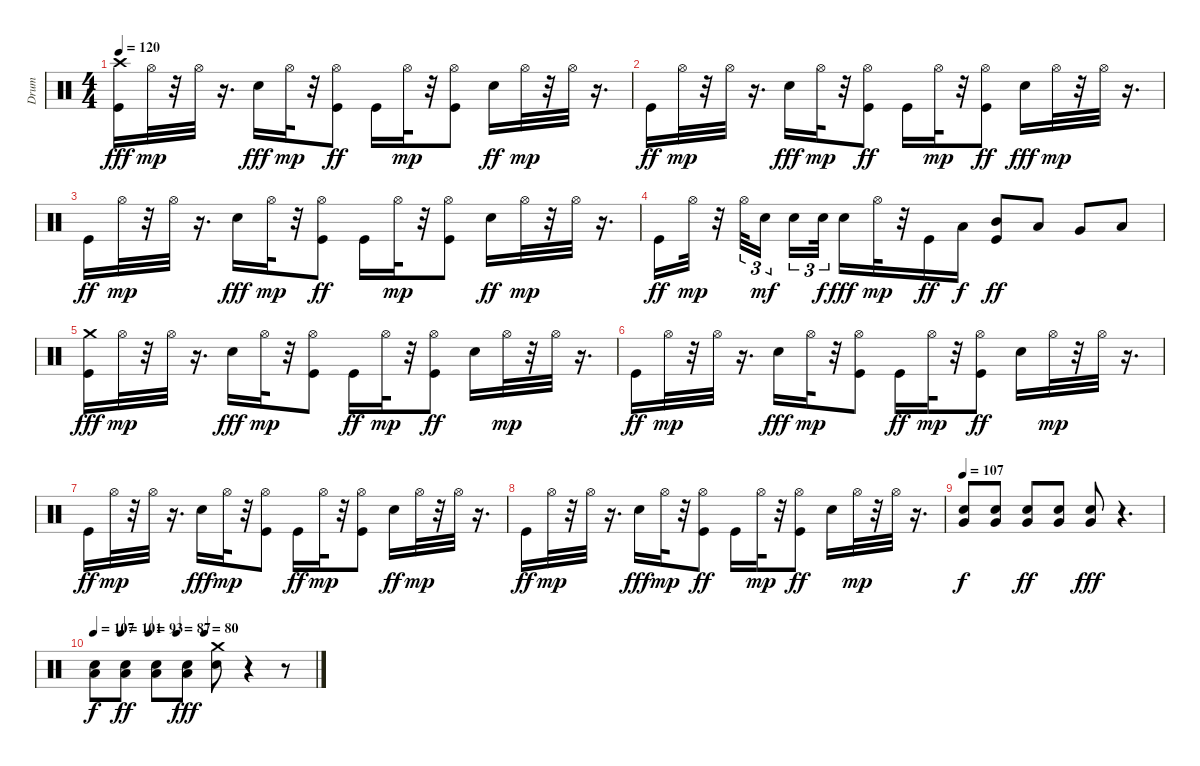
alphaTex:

\track ("Drum" "Drum") {instrument percussion}
\staff {score}
\articulation defaults
\ts (4 4)
\tempo 120
\clef neutral
\ks c
("Kick (hit)" "Crash high (hit)").16{dy fff} "Hi-Hat (open)".32{dy mp} r.32 "Hi-Hat (open)".32 r.16{d} "Snare (hit) 2".16{dy fff} "Hi-Hat (open)".32{dy mp} r.32 ("Hi-Hat (open)" "Kick (hit)").8{dy ff} "Kick (hit)".16 "Hi-Hat (open)".32{dy mp} r.32 ("Kick (hit)" "Hi-Hat (open)").8 "Snare (hit) 2".16{dy ff} "Hi-Hat (open)".32{dy mp} r.32 "Hi-Hat (open)".32 r.16{d} |
"Kick (hit)".16{dy ff} "Hi-Hat (open)".32{dy mp} r.32 "Hi-Hat (open)".32 r.16{d} "Snare (hit) 2".16{dy fff} "Hi-Hat (open)".32{dy mp} r.32 ("Hi-Hat (open)" "Kick (hit)").8{dy ff} "Kick (hit)".16 "Hi-Hat (open)".32{dy mp} r.32 ("Hi-Hat (open)" "Kick (hit)").8{dy ff} "Snare (hit) 2".16{dy fff} "Hi-Hat (open)".32{dy mp} r.32 "Hi-Hat (open)".32 r.16{d} |
"Kick (hit)".16{dy ff} "Hi-Hat (open)".32{dy mp} r.32 "Hi-Hat (open)".32 r.16{d} "Snare (hit) 2".16{dy fff} "Hi-Hat (open)".32{dy mp} r.32 ("Hi-Hat (open)" "Kick (hit)").8{dy ff} "Kick (hit)".16 "Hi-Hat (open)".32{dy mp} r.32 ("Kick (hit)" "Hi-Hat (open)").8 "Snare (hit) 2".16{dy ff} "Hi-Hat (open)".32{dy mp} r.32 "Hi-Hat (open)".32 r.16{d} |
"Kick (hit)".16{dy ff} "Hi-Hat (open)".32{dy mp} r.32 "Hi-Hat (open)".32{tu (3 2)} "Snare (hit) 2".16{tu (3 2) dy mf} "Snare (hit) 2".16{tu (3 2)} "Snare (hit) 2".32{tu (3 2) dy f} "Snare (hit) 2".16{dy fff} "Hi-Hat (open)".32{dy mp} r.32 "Kick (hit)".16{dy ff} "Low Tom (hit)".16{dy f} ("Mid Tom (hit)" "Kick (hit)").8{dy ff} "Low Tom (hit)".8 "Very Low Tom (hit)".8 "Low Floor Tom (hit)".8 |
("Kick (hit)" "Crash medium (hit)").16{dy fff} "Hi-Hat (open)".32{dy mp} r.32 "Hi-Hat (open)".32 r.16{d} "Snare (hit) 2".16{dy fff} "Hi-Hat (open)".32{dy mp} r.32 ("Kick (hit)" "Hi-Hat (open)").8 "Kick (hit)".16{dy ff} "Hi-Hat (open)".32{dy mp} r.32 ("Hi-Hat (open)" "Kick (hit)").8{dy ff} "Snare (hit) 2".16 "Hi-Hat (open)".32{dy mp} r.32 "Hi-Hat (open)".32 r.16{d} |
"Kick (hit)".16{dy ff} "Hi-Hat (open)".32{dy mp} r.32 "Hi-Hat (open)".32 r.16{d} "Snare (hit) 2".16{dy fff} "Hi-Hat (open)".32{dy mp} r.32 ("Kick (hit)" "Hi-Hat (open)").8 "Kick (hit)".16{dy ff} "Hi-Hat (open)".32{dy mp} r.32 ("Hi-Hat (open)" "Kick (hit)").8{dy ff} "Snare (hit) 2".16 "Hi-Hat (open)".32{dy mp} r.32 "Hi-Hat (open)".32 r.16{d} |
"Kick (hit)".16{dy ff} "Hi-Hat (open)".32{dy mp} r.32 "Hi-Hat (open)".32 r.16{d} "Snare (hit) 2".16{dy fff} "Hi-Hat (open)".32{dy mp} r.32 ("Kick (hit)" "Hi-Hat (open)").8 "Kick (hit)".16{dy ff} "Hi-Hat (open)".32{dy mp} r.32 ("Kick (hit)" "Hi-Hat (open)").8 "Snare (hit) 2".16{dy ff} "Hi-Hat (open)".32{dy mp} r.32 "Hi-Hat (open)".32 r.16{d} |
"Kick (hit)".16{dy ff} "Hi-Hat (open)".32{dy mp} r.32 "Hi-Hat (open)".32 r.16{d} "Snare (hit) 2".16{dy fff} "Hi-Hat (open)".32{dy mp} r.32 ("Hi-Hat (open)" "Kick (hit)").8{dy ff} "Kick (hit)".16 "Hi-Hat (open)".32{dy mp} r.32 ("Hi-Hat (open)" "Kick (hit)").8{dy ff} "Snare (hit) 2".16 "Hi-Hat (open)".32{dy mp} r.32 "Hi-Hat (open)".32 r.16{d} |
\tempo 107
("Snare (hit) 2" "Very Low Tom (hit)").8{dy f} ("Snare (hit) 2" "Very Low Tom (hit)").8 ("Snare (hit) 2" "Very Low Tom (hit)").8{dy ff} ("Snare (hit) 2" "Very Low Tom (hit)").8 ("Snare (hit) 2" "Very Low Tom (hit)").8{dy fff} r.4{d} |
\tempo 107
\tempo (101 0.125)
\tempo (93 0.25)
\tempo (87 0.375)
\tempo (80 0.5)
("Low Floor Tom (hit)" "Snare (hit) 2").8{dy f} ("Snare (hit) 2" "Low Floor Tom (hit)").8{dy ff} ("Low Floor Tom (hit)" "Snare (hit) 2").8 ("Low Floor Tom (hit)" "Snare (hit) 2").8{dy fff} ("Snare (hit) 2" "Crash medium (hit)").8 r.4 r.8
